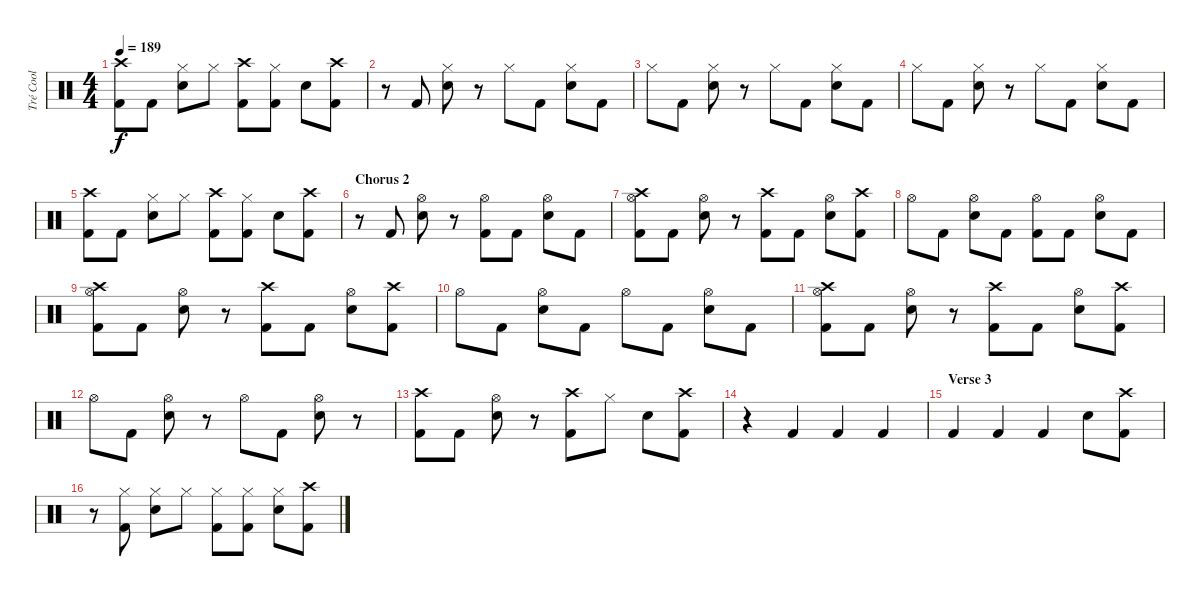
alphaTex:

\track ("Tré Cool" "Tré Cool") {instrument percussion}
\staff {score}
\articulation defaults
\ts (4 4)
\tempo 189
\clef neutral
\ks c
("Crash high (hit)" "Kick (hit) 2").8{dy f} "Kick (hit) 2".8 ("Hi-Hat (closed)" "Snare (hit) 2").8 "Hi-Hat (closed)".8 ("Crash high (hit)" "Kick (hit) 2").8 ("Hi-Hat (closed)" "Kick (hit) 2").8 "Snare (hit) 2".8 ("Crash high (hit)" "Kick (hit) 2").8 |
r.8 "Kick (hit) 2".8 ("Hi-Hat (closed)" "Snare (hit) 2").8 r.8 "Hi-Hat (closed)".8 "Kick (hit) 2".8 ("Hi-Hat (closed)" "Snare (hit) 2").8 "Kick (hit) 2".8 |
"Hi-Hat (closed)".8 "Kick (hit) 2".8 ("Hi-Hat (closed)" "Snare (hit) 2").8 r.8 "Hi-Hat (closed)".8 "Kick (hit) 2".8 ("Hi-Hat (closed)" "Snare (hit) 2").8 "Kick (hit) 2".8 |
"Hi-Hat (closed)".8 "Kick (hit) 2".8 ("Hi-Hat (closed)" "Snare (hit) 2").8 r.8 "Hi-Hat (closed)".8 "Kick (hit) 2".8 ("Hi-Hat (closed)" "Snare (hit) 2").8 "Kick (hit) 2".8 |
("Crash high (hit)" "Kick (hit) 2").8 "Kick (hit) 2".8 ("Hi-Hat (closed)" "Snare (hit) 2").8 "Hi-Hat (closed)".8 ("Crash high (hit)" "Kick (hit) 2").8 ("Hi-Hat (closed)" "Kick (hit) 2").8 "Snare (hit) 2".8 ("Crash high (hit)" "Kick (hit) 2").8 |
\section ("" "Chorus 2")
r.8 "Kick (hit) 2".8 ("Hi-Hat (open)" "Snare (hit) 2").8 r.8 ("Hi-Hat (open)" "Kick (hit) 2").8 "Kick (hit) 2".8 ("Hi-Hat (open)" "Snare (hit) 2").8 "Kick (hit) 2".8 |
("Crash high (hit)" "Hi-Hat (open)" "Kick (hit) 2").8 "Kick (hit) 2".8 ("Hi-Hat (open)" "Snare (hit) 2").8 r.8 ("Crash high (hit)" "Kick (hit) 2").8 "Kick (hit) 2".8 ("Hi-Hat (open)" "Snare (hit) 2").8 ("Crash high (hit)" "Kick (hit) 2").8 |
"Hi-Hat (open)".8 "Kick (hit) 2".8 ("Hi-Hat (open)" "Snare (hit) 2").8 "Kick (hit) 2".8 ("Hi-Hat (open)" "Kick (hit) 2").8 "Kick (hit) 2".8 ("Hi-Hat (open)" "Snare (hit) 2").8 "Kick (hit) 2".8 |
("Crash high (hit)" "Hi-Hat (open)" "Kick (hit) 2").8 "Kick (hit) 2".8 ("Hi-Hat (open)" "Snare (hit) 2").8 r.8 ("Crash high (hit)" "Kick (hit) 2").8 "Kick (hit) 2".8 ("Hi-Hat (open)" "Snare (hit) 2").8 ("Crash high (hit)" "Kick (hit) 2").8 |
"Hi-Hat (open)".8 "Kick (hit) 2".8 ("Hi-Hat (open)" "Snare (hit) 2").8 "Kick (hit) 2".8 "Hi-Hat (open)".8 "Kick (hit) 2".8 ("Hi-Hat (open)" "Snare (hit) 2").8 "Kick (hit) 2".8 |
("Crash high (hit)" "Hi-Hat (open)" "Kick (hit) 2").8 "Kick (hit) 2".8 ("Hi-Hat (open)" "Snare (hit) 2").8 r.8 ("Crash high (hit)" "Kick (hit) 2").8 "Kick (hit) 2".8 ("Hi-Hat (open)" "Snare (hit) 2").8 ("Crash high (hit)" "Kick (hit) 2").8 |
"Hi-Hat (open)".8 "Kick (hit) 2".8 ("Hi-Hat (open)" "Snare (hit) 2").8 r.8 "Hi-Hat (open)".8 "Kick (hit) 2".8 ("Hi-Hat (open)" "Snare (hit) 2").8 r.8 |
("Crash high (hit)" "Kick (hit) 2").8 "Kick (hit) 2".8 ("Hi-Hat (open)" "Snare (hit) 2").8 r.8 ("Crash high (hit)" "Kick (hit) 2").8 "Hi-Hat (closed)".8 "Snare (hit) 2".8 ("Crash high (hit)" "Kick (hit) 2").8 |
r.4 "Kick (hit) 2".4 "Kick (hit) 2".4 "Kick (hit) 2".4 |
\section ("" "Verse 3")
"Kick (hit) 2".4 "Kick (hit) 2".4 "Kick (hit) 2".4 "Snare (hit) 2".8 ("Crash high (hit)" "Kick (hit) 2").8 |
r.8 ("Hi-Hat (closed)" "Kick (hit) 2").8 ("Hi-Hat (closed)" "Snare (hit) 2").8 "Hi-Hat (closed)".8 ("Hi-Hat (closed)" "Kick (hit) 2").8 ("Hi-Hat (closed)" "Kick (hit) 2").8 ("Hi-Hat (closed)" "Snare (hit) 2").8 ("Crash high (hit)" "Kick (hit) 2").8
